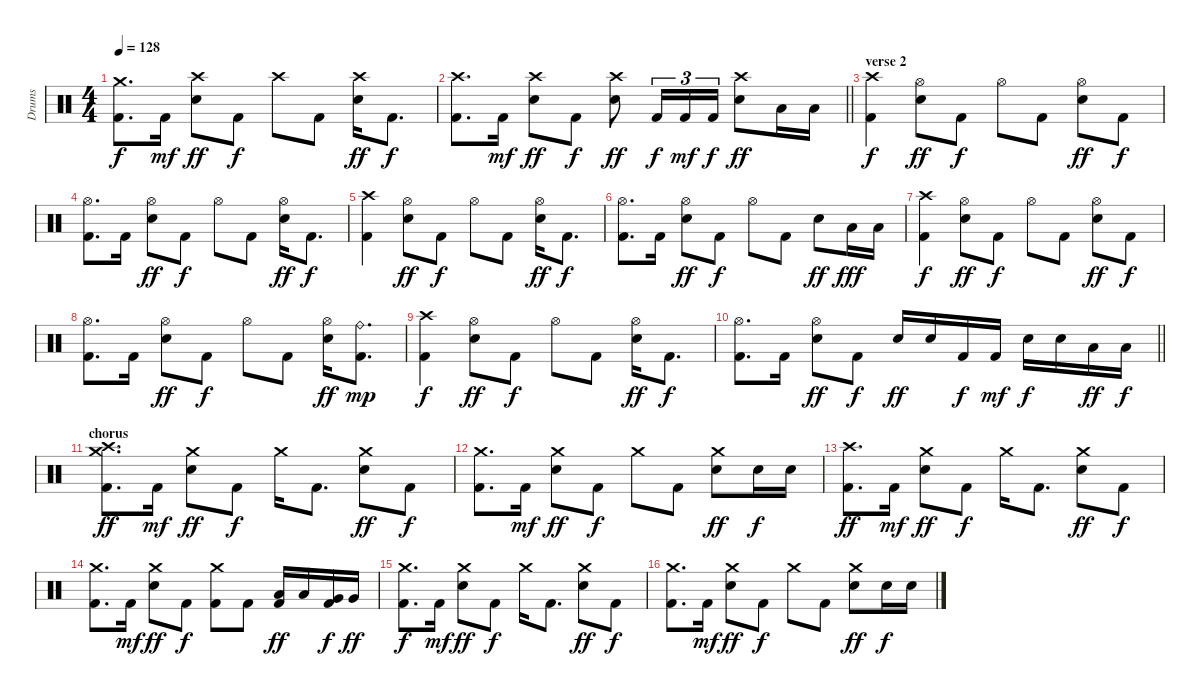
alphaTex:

\track ("Drums" "Drums") {instrument percussion}
\staff {score}
\articulation defaults
\ts (4 4)
\tempo 128
\clef neutral
\ks c
("Crash medium (hit)" "Kick (hit) 2").8{d dy f} "Kick (hit) 2".16{dy mf} ("Crash high (hit)" "Electric Snare (hit)").8{dy ff} "Kick (hit) 2".8{dy f} "Crash high (hit)".8 "Kick (hit) 2".8 ("Crash high (hit)" "Electric Snare (hit)").16{dy ff} "Kick (hit) 2".8{d dy f} |
\barLineRight lightlight
("Crash high (hit)" "Kick (hit) 2").8{d} "Kick (hit) 2".16{dy mf} ("Crash high (hit)" "Electric Snare (hit)").8{dy ff} "Kick (hit) 2".8{dy f} ("Crash high (hit)" "Electric Snare (hit)").8{dy ff} "Kick (hit) 2".16{tu (3 2) dy f} "Kick (hit) 2".16{tu (3 2) dy mf} "Kick (hit) 2".16{tu (3 2) dy f} ("Crash high (hit)" "Electric Snare (hit)").8{dy ff} "Low Tom (hit)".16 "Low Tom (hit)".16 |
\section ("" "verse 2")
("Crash high (hit)" "Kick (hit) 2").4{dy f} ("Hi-Hat (open)" "Electric Snare (hit)").8{dy ff} "Kick (hit) 2".8{dy f} "Hi-Hat (open)".8 "Kick (hit) 2".8 ("Hi-Hat (open)" "Electric Snare (hit)").8{dy ff} "Kick (hit) 2".8{dy f} |
("Hi-Hat (open)" "Kick (hit) 2").8{d} "Kick (hit) 2".16 ("Hi-Hat (open)" "Electric Snare (hit)").8{dy ff} "Kick (hit) 2".8{dy f} "Hi-Hat (open)".8 "Kick (hit) 2".8 ("Hi-Hat (open)" "Electric Snare (hit)").16{dy ff} "Kick (hit) 2".8{d dy f} |
("Crash high (hit)" "Kick (hit) 2").4 ("Hi-Hat (open)" "Electric Snare (hit)").8{dy ff} "Kick (hit) 2".8{dy f} "Hi-Hat (open)".8 "Kick (hit) 2".8 ("Hi-Hat (open)" "Electric Snare (hit)").16{dy ff} "Kick (hit) 2".8{d dy f} |
("Hi-Hat (open)" "Kick (hit) 2").8{d} "Kick (hit) 2".16 ("Hi-Hat (open)" "Electric Snare (hit)").8{dy ff} "Kick (hit) 2".8{dy f} "Hi-Hat (open)".8 "Kick (hit) 2".8 "Electric Snare (hit)".8{dy ff} "Low Tom (hit)".16{dy fff} "Low Tom (hit)".16 |
("Crash high (hit)" "Kick (hit) 2").4{dy f} ("Hi-Hat (open)" "Electric Snare (hit)").8{dy ff} "Kick (hit) 2".8{dy f} "Hi-Hat (open)".8 "Kick (hit) 2".8 ("Hi-Hat (open)" "Electric Snare (hit)").8{dy ff} "Kick (hit) 2".8{dy f} |
("Hi-Hat (open)" "Kick (hit) 2").8{d} "Kick (hit) 2".16 ("Hi-Hat (open)" "Electric Snare (hit)").8{dy ff} "Kick (hit) 2".8{dy f} "Hi-Hat (open)".8 "Kick (hit) 2".8 ("Hi-Hat (open)" "Electric Snare (hit)").16{dy ff} ("Ride (bell)" "Kick (hit) 2").8{d dy mp} |
("Crash high (hit)" "Kick (hit) 2").4{dy f} ("Hi-Hat (open)" "Electric Snare (hit)").8{dy ff} "Kick (hit) 2".8{dy f} "Hi-Hat (open)".8 "Kick (hit) 2".8 ("Hi-Hat (open)" "Electric Snare (hit)").16{dy ff} "Kick (hit) 2".8{d dy f} |
\barLineRight lightlight
("Hi-Hat (open)" "Kick (hit) 2").8{d} "Kick (hit) 2".16 ("Hi-Hat (open)" "Electric Snare (hit)").8{dy ff} "Kick (hit) 2".8{dy f} "Electric Snare (hit)".16{dy ff} "Electric Snare (hit)".16 "Kick (hit) 2".16{dy f} "Kick (hit) 2".16{dy mf} "Electric Snare (hit)".16{dy f} "Electric Snare (hit)".16 "Low Tom (hit)".16{dy ff} "Low Tom (hit)".16{dy f} |
\section ("" "chorus")
("Crash medium (hit)" "Crash high (hit)" "Kick (hit) 2").8{d dy ff} "Kick (hit) 2".16{dy mf} ("Crash medium (hit)" "Electric Snare (hit)").8{dy ff} "Kick (hit) 2".8{dy f} "Crash medium (hit)".16 "Kick (hit) 2".8{d} ("Crash medium (hit)" "Electric Snare (hit)").8{dy ff} "Kick (hit) 2".8{dy f} |
("Crash medium (hit)" "Kick (hit) 2").8{d} "Kick (hit) 2".16{dy mf} ("Crash medium (hit)" "Electric Snare (hit)").8{dy ff} "Kick (hit) 2".8{dy f} "Crash medium (hit)".8 "Kick (hit) 2".8 ("Crash medium (hit)" "Electric Snare (hit)").8{dy ff} "Electric Snare (hit)".16{dy f} "Electric Snare (hit)".16 |
("Crash high (hit)" "Kick (hit) 2").8{d dy ff} "Kick (hit) 2".16{dy mf} ("Crash medium (hit)" "Electric Snare (hit)").8{dy ff} "Kick (hit) 2".8{dy f} "Crash medium (hit)".16 "Kick (hit) 2".8{d} ("Crash medium (hit)" "Electric Snare (hit)").8{dy ff} "Kick (hit) 2".8{dy f} |
("Crash medium (hit)" "Kick (hit) 2").8{d} "Kick (hit) 2".16{dy mf} ("Crash medium (hit)" "Electric Snare (hit)").8{dy ff} "Kick (hit) 2".8{dy f} ("Crash medium (hit)" "Kick (hit) 2").8 "Kick (hit) 2".8 ("Low Tom (hit)" "Kick (hit) 2").16{dy ff} "Low Tom (hit)".16 ("Very Low Tom (hit)" "Kick (hit) 2").16{dy f} "Very Low Tom (hit)".16{dy ff} |
("Crash medium (hit)" "Kick (hit) 2").8{d dy f} "Kick (hit) 2".16{dy mf} ("Crash medium (hit)" "Electric Snare (hit)").8{dy ff} "Kick (hit) 2".8{dy f} "Crash medium (hit)".16 "Kick (hit) 2".8{d} ("Crash medium (hit)" "Electric Snare (hit)").8{dy ff} "Kick (hit) 2".8{dy f} |
("Crash medium (hit)" "Kick (hit) 2").8{d} "Kick (hit) 2".16{dy mf} ("Crash medium (hit)" "Electric Snare (hit)").8{dy ff} "Kick (hit) 2".8{dy f} "Crash medium (hit)".8 "Kick (hit) 2".8 ("Crash medium (hit)" "Electric Snare (hit)").8{dy ff} "Electric Snare (hit)".16{dy f} "Electric Snare (hit)".16
